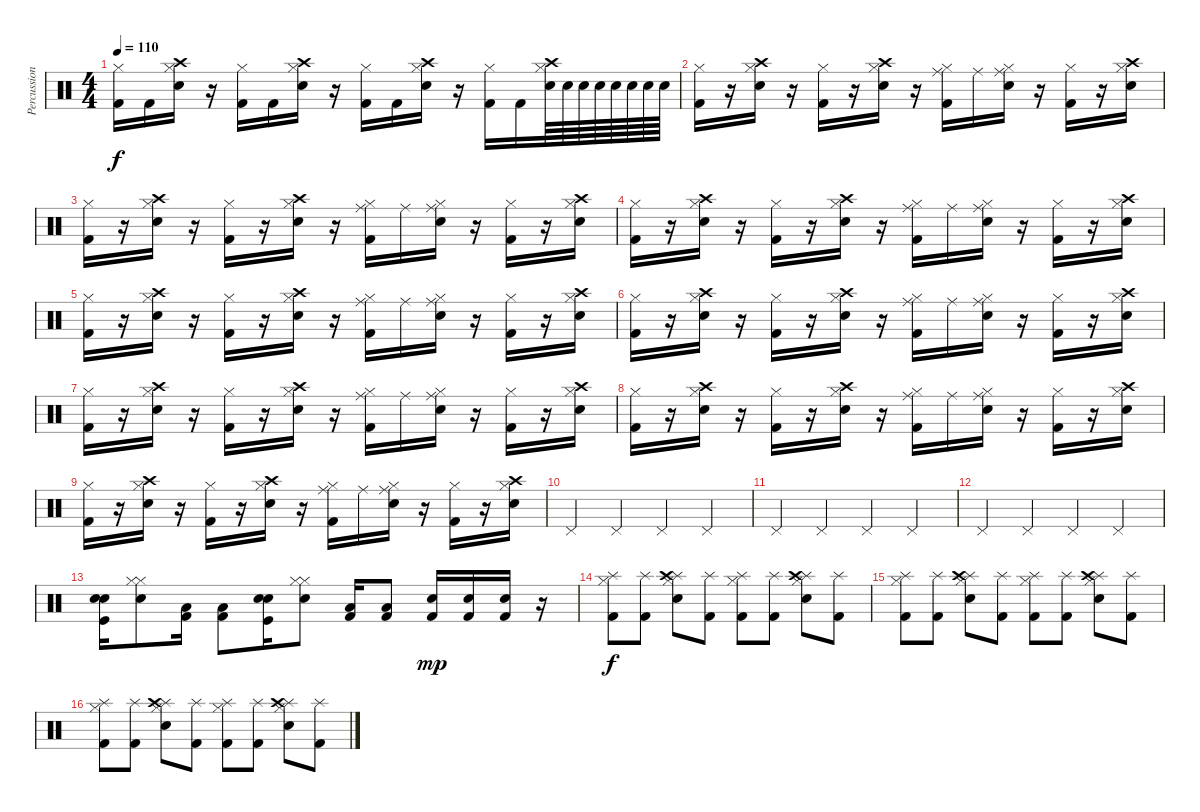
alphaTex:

\track ("Percussion" "Percussion") {instrument percussion}
\staff {score}
\articulation defaults
\ts (4 4)
\tempo 110
\clef neutral
\ks c
("Hi-Hat (closed)" "Kick (hit) 2").16{dy f} "Kick (hit) 2".16 ("Hi-Hat (closed)" "Crash high (hit)" "Electric Snare (hit)").16 r.16 ("Hi-Hat (closed)" "Kick (hit) 2").16 "Kick (hit) 2".16 ("Hi-Hat (closed)" "Crash high (hit)" "Electric Snare (hit)").16 r.16 ("Hi-Hat (closed)" "Kick (hit) 2").16 "Kick (hit) 2".16 ("Hi-Hat (closed)" "Crash high (hit)" "Electric Snare (hit)").16 r.16 ("Hi-Hat (closed)" "Kick (hit) 2").16 "Kick (hit) 2".16 ("Hi-Hat (closed)" "Crash high (hit)" "Electric Snare (hit)").64 "Electric Snare (hit)".64 "Electric Snare (hit)".64 "Electric Snare (hit)".64 "Electric Snare (hit)".64 "Electric Snare (hit)".64 "Electric Snare (hit)".64 "Electric Snare (hit)".64 |
("Hi-Hat (closed)" "Kick (hit) 2").16 r.16 ("Hi-Hat (closed)" "Crash high (hit)" "Electric Snare (hit)").16 r.16 ("Hi-Hat (closed)" "Kick (hit) 2").16 r.16 ("Hi-Hat (closed)" "Crash high (hit)" "Electric Snare (hit)").16 r.16 ("Hi-Hat (closed)" "Ride (middle)" "Kick (hit) 2").16 "Ride (middle)".16 ("Hi-Hat (closed)" "Ride (middle)" "Electric Snare (hit)").16 r.16 ("Hi-Hat (closed)" "Kick (hit) 2").16 r.16 ("Hi-Hat (closed)" "Crash high (hit)" "Electric Snare (hit)").16 |
("Hi-Hat (closed)" "Kick (hit) 2").16 r.16 ("Hi-Hat (closed)" "Crash high (hit)" "Electric Snare (hit)").16 r.16 ("Hi-Hat (closed)" "Kick (hit) 2").16 r.16 ("Hi-Hat (closed)" "Crash high (hit)" "Electric Snare (hit)").16 r.16 ("Hi-Hat (closed)" "Ride (middle)" "Kick (hit) 2").16 "Ride (middle)".16 ("Hi-Hat (closed)" "Ride (middle)" "Electric Snare (hit)").16 r.16 ("Hi-Hat (closed)" "Kick (hit) 2").16 r.16 ("Hi-Hat (closed)" "Crash high (hit)" "Electric Snare (hit)").16 |
("Hi-Hat (closed)" "Kick (hit) 2").16 r.16 ("Hi-Hat (closed)" "Crash high (hit)" "Electric Snare (hit)").16 r.16 ("Hi-Hat (closed)" "Kick (hit) 2").16 r.16 ("Hi-Hat (closed)" "Crash high (hit)" "Electric Snare (hit)").16 r.16 ("Hi-Hat (closed)" "Ride (middle)" "Kick (hit) 2").16 "Ride (middle)".16 ("Hi-Hat (closed)" "Ride (middle)" "Electric Snare (hit)").16 r.16 ("Hi-Hat (closed)" "Kick (hit) 2").16 r.16 ("Hi-Hat (closed)" "Crash high (hit)" "Electric Snare (hit)").16 |
("Hi-Hat (closed)" "Kick (hit) 2").16 r.16 ("Hi-Hat (closed)" "Crash high (hit)" "Electric Snare (hit)").16 r.16 ("Hi-Hat (closed)" "Kick (hit) 2").16 r.16 ("Hi-Hat (closed)" "Crash high (hit)" "Electric Snare (hit)").16 r.16 ("Hi-Hat (closed)" "Ride (middle)" "Kick (hit) 2").16 "Ride (middle)".16 ("Hi-Hat (closed)" "Ride (middle)" "Electric Snare (hit)").16 r.16 ("Hi-Hat (closed)" "Kick (hit) 2").16 r.16 ("Hi-Hat (closed)" "Crash high (hit)" "Electric Snare (hit)").16 |
("Hi-Hat (closed)" "Kick (hit) 2").16 r.16 ("Hi-Hat (closed)" "Crash high (hit)" "Electric Snare (hit)").16 r.16 ("Hi-Hat (closed)" "Kick (hit) 2").16 r.16 ("Hi-Hat (closed)" "Crash high (hit)" "Electric Snare (hit)").16 r.16 ("Hi-Hat (closed)" "Ride (middle)" "Kick (hit) 2").16 "Ride (middle)".16 ("Hi-Hat (closed)" "Ride (middle)" "Electric Snare (hit)").16 r.16 ("Hi-Hat (closed)" "Kick (hit) 2").16 r.16 ("Hi-Hat (closed)" "Crash high (hit)" "Electric Snare (hit)").16 |
("Hi-Hat (closed)" "Kick (hit) 2").16 r.16 ("Hi-Hat (closed)" "Crash high (hit)" "Electric Snare (hit)").16 r.16 ("Hi-Hat (closed)" "Kick (hit) 2").16 r.16 ("Hi-Hat (closed)" "Crash high (hit)" "Electric Snare (hit)").16 r.16 ("Hi-Hat (closed)" "Ride (middle)" "Kick (hit) 2").16 "Ride (middle)".16 ("Hi-Hat (closed)" "Ride (middle)" "Electric Snare (hit)").16 r.16 ("Hi-Hat (closed)" "Kick (hit) 2").16 r.16 ("Hi-Hat (closed)" "Crash high (hit)" "Electric Snare (hit)").16 |
("Hi-Hat (closed)" "Kick (hit) 2").16 r.16 ("Hi-Hat (closed)" "Crash high (hit)" "Electric Snare (hit)").16 r.16 ("Hi-Hat (closed)" "Kick (hit) 2").16 r.16 ("Hi-Hat (closed)" "Crash high (hit)" "Electric Snare (hit)").16 r.16 ("Hi-Hat (closed)" "Ride (middle)" "Kick (hit) 2").16 "Ride (middle)".16 ("Hi-Hat (closed)" "Ride (middle)" "Electric Snare (hit)").16 r.16 ("Hi-Hat (closed)" "Kick (hit) 2").16 r.16 ("Hi-Hat (closed)" "Crash high (hit)" "Electric Snare (hit)").16 |
("Hi-Hat (closed)" "Kick (hit) 2").16 r.16 ("Hi-Hat (closed)" "Crash high (hit)" "Electric Snare (hit)").16 r.16 ("Hi-Hat (closed)" "Kick (hit) 2").16 r.16 ("Hi-Hat (closed)" "Crash high (hit)" "Electric Snare (hit)").16 r.16 ("Hi-Hat (closed)" "Ride (middle)" "Kick (hit) 2").16 "Ride (middle)".16 ("Hi-Hat (closed)" "Ride (middle)" "Electric Snare (hit)").16 r.16 ("Hi-Hat (closed)" "Kick (hit) 2").16 r.16 ("Hi-Hat (closed)" "Crash high (hit)" "Electric Snare (hit)").16 |
"Pedal Hi-Hat (hit)".4 "Pedal Hi-Hat (hit)".4 "Pedal Hi-Hat (hit)".4 "Pedal Hi-Hat (hit)".4 |
"Pedal Hi-Hat (hit)".4 "Pedal Hi-Hat (hit)".4 "Pedal Hi-Hat (hit)".4 "Pedal Hi-Hat (hit)".4 |
"Pedal Hi-Hat (hit)".4 "Pedal Hi-Hat (hit)".4 "Pedal Hi-Hat (hit)".4 "Pedal Hi-Hat (hit)".4 |
("Kick (hit)" "Electric Snare (hit)" "Electric Snare (hit)").16 ("Hi-Hat (closed)" "Hi-Hat (closed)" "Electric Snare (hit)").8 ("Low Tom (hit)" "Kick (hit) 2").16 ("Low Tom (hit)" "Kick (hit) 2").8 ("Kick (hit)" "Electric Snare (hit)" "Electric Snare (hit)").16 ("Hi-Hat (closed)" "Hi-Hat (closed)" "Electric Snare (hit)").8 ("Low Tom (hit)" "Kick (hit) 2").16 ("Low Tom (hit)" "Kick (hit) 2").8 ("Electric Snare (hit)" "Kick (hit) 2").16{dy mp} ("Electric Snare (hit)" "Kick (hit) 2").16 ("Electric Snare (hit)" "Kick (hit) 2").16 r.16 |
("Hi-Hat (closed)" "Splash (hit)" "Kick (hit) 2").8{dy f} ("Splash (hit)" "Kick (hit) 2").8 ("Hi-Hat (closed)" "Splash (hit)" "Electric Snare (hit)" "Crash high (hit)").8 ("Splash (hit)" "Kick (hit) 2").8 ("Hi-Hat (closed)" "Splash (hit)" "Kick (hit) 2").8 ("Splash (hit)" "Kick (hit) 2").8 ("Hi-Hat (closed)" "Splash (hit)" "Electric Snare (hit)" "Crash high (hit)").8 ("Splash (hit)" "Kick (hit) 2").8 |
("Hi-Hat (closed)" "Splash (hit)" "Kick (hit) 2").8 ("Splash (hit)" "Kick (hit) 2").8 ("Hi-Hat (closed)" "Splash (hit)" "Electric Snare (hit)" "Crash high (hit)").8 ("Splash (hit)" "Kick (hit) 2").8 ("Hi-Hat (closed)" "Splash (hit)" "Kick (hit) 2").8 ("Splash (hit)" "Kick (hit) 2").8 ("Hi-Hat (closed)" "Splash (hit)" "Electric Snare (hit)" "Crash high (hit)").8 ("Splash (hit)" "Kick (hit) 2").8 |
("Hi-Hat (closed)" "Splash (hit)" "Kick (hit) 2").8 ("Splash (hit)" "Kick (hit) 2").8 ("Hi-Hat (closed)" "Splash (hit)" "Electric Snare (hit)" "Crash high (hit)").8 ("Splash (hit)" "Kick (hit) 2").8 ("Hi-Hat (closed)" "Splash (hit)" "Kick (hit) 2").8 ("Splash (hit)" "Kick (hit) 2").8 ("Hi-Hat (closed)" "Splash (hit)" "Electric Snare (hit)" "Crash high (hit)").8 ("Splash (hit)" "Kick (hit) 2").8
